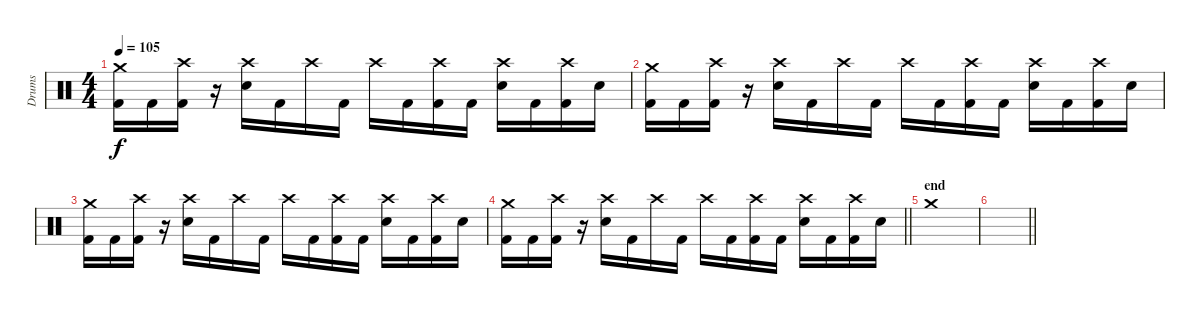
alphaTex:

\track ("Drums" "Drums") {instrument percussion}
\staff {score}
\articulation defaults
\ts (4 4)
\tempo 105
\clef neutral
\ks c
("Crash medium (hit)" "Kick (hit) 2").16{dy f} "Kick (hit) 2".16 ("Crash high (hit)" "Kick (hit) 2").16 r.16 ("Crash high (hit)" "Electric Snare (hit)").16 "Kick (hit) 2".16 "Crash high (hit)".16 "Kick (hit) 2".16 "Crash high (hit)".16 "Kick (hit) 2".16 ("Crash high (hit)" "Kick (hit) 2").16 "Kick (hit) 2".16 ("Crash high (hit)" "Electric Snare (hit)").16 "Kick (hit) 2".16 ("Crash high (hit)" "Kick (hit) 2").16 "Electric Snare (hit)".16 |
("Crash medium (hit)" "Kick (hit) 2").16 "Kick (hit) 2".16 ("Crash high (hit)" "Kick (hit) 2").16 r.16 ("Crash high (hit)" "Electric Snare (hit)").16 "Kick (hit) 2".16 "Crash high (hit)".16 "Kick (hit) 2".16 "Crash high (hit)".16 "Kick (hit) 2".16 ("Crash high (hit)" "Kick (hit) 2").16 "Kick (hit) 2".16 ("Crash high (hit)" "Electric Snare (hit)").16 "Kick (hit) 2".16 ("Crash high (hit)" "Kick (hit) 2").16 "Electric Snare (hit)".16 |
("Crash medium (hit)" "Kick (hit) 2").16 "Kick (hit) 2".16 ("Crash high (hit)" "Kick (hit) 2").16 r.16 ("Crash high (hit)" "Electric Snare (hit)").16 "Kick (hit) 2".16 "Crash high (hit)".16 "Kick (hit) 2".16 "Crash high (hit)".16 "Kick (hit) 2".16 ("Crash high (hit)" "Kick (hit) 2").16 "Kick (hit) 2".16 ("Crash high (hit)" "Electric Snare (hit)").16 "Kick (hit) 2".16 ("Crash high (hit)" "Kick (hit) 2").16 "Electric Snare (hit)".16 |
\barLineRight lightlight
("Crash medium (hit)" "Kick (hit) 2").16 "Kick (hit) 2".16 ("Crash high (hit)" "Kick (hit) 2").16 r.16 ("Crash high (hit)" "Electric Snare (hit)").16 "Kick (hit) 2".16 "Crash high (hit)".16 "Kick (hit) 2".16 "Crash high (hit)".16 "Kick (hit) 2".16 ("Crash high (hit)" "Kick (hit) 2").16 "Kick (hit) 2".16 ("Crash high (hit)" "Electric Snare (hit)").16 "Kick (hit) 2".16 ("Crash high (hit)" "Kick (hit) 2").16 "Electric Snare (hit)".16 |
\section ("" "end")
"Crash medium (hit)".1 |
\barLineRight lightlight
